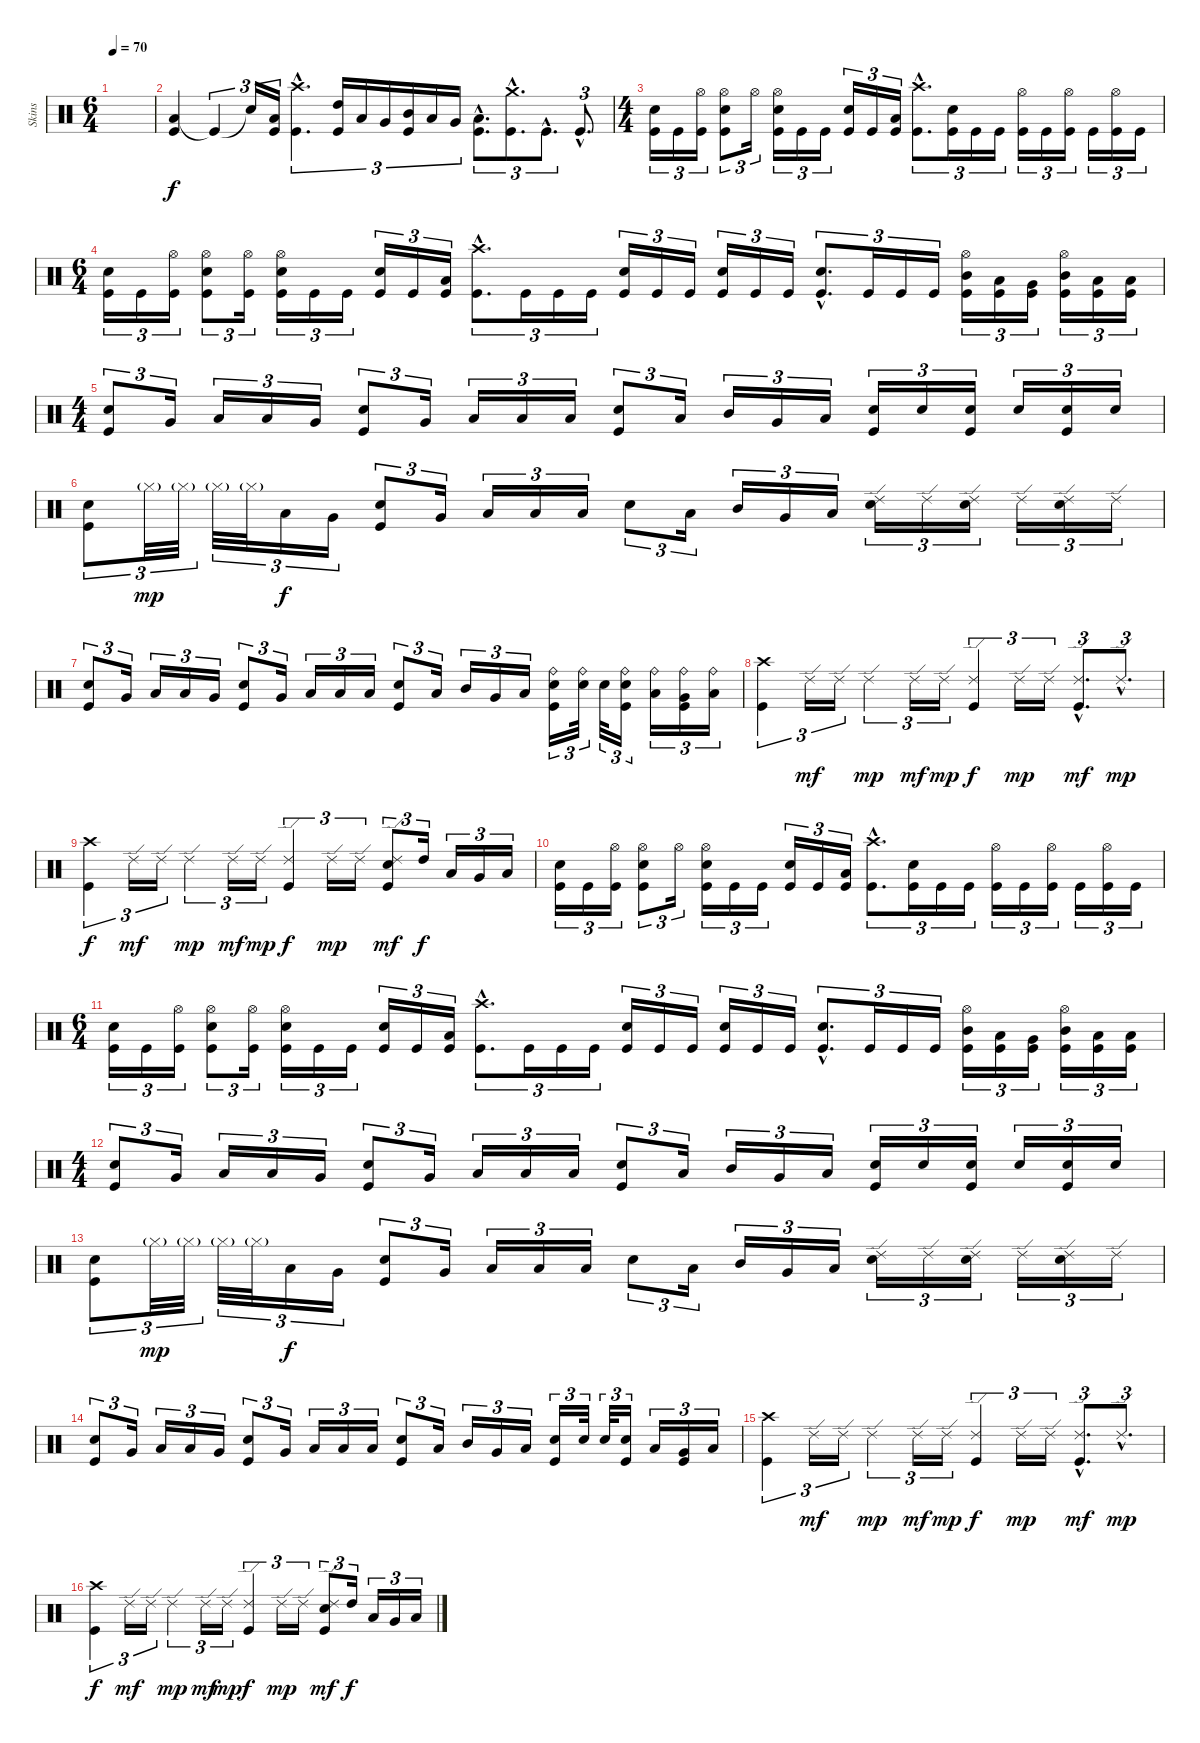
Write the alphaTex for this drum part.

\track ("Skins" "Skins") {instrument percussion}
\staff {score}
\articulation defaults
\ts (6 4)
\tempo 70
\clef neutral
\ks c
|
("Low Tom (hit)" "Kick (hit)").4 "Kick (hit)"{t}.4{tu (3 2)} "Snare (hit)"{t}.16{tu (3 2)} ("Low Tom (hit)" "Kick (hit)").16{tu (3 2)} ("Crash high (hit)"{hac} "Kick (hit)"{hac}).4{d tu (3 2)} ("High Tom (hit)" "Kick (hit)").16{tu (3 2)} "Low Tom (hit)".16{tu (3 2)} "Very Low Tom (hit)".16{tu (3 2)} ("Mid Tom (hit)" "Kick (hit)").16{tu (3 2)} "Low Tom (hit)".16{tu (3 2)} "Very Low Tom (hit)".16{tu (3 2)} ("Low Floor Tom (hit)"{hac} "Kick (hit)"{hac}).8{d tu (3 2)} ("Crash medium (hit)"{hac} "Kick (hit)"{hac}).8{d tu (3 2)} "Kick (hit)"{hac}.8{d tu (3 2)} "Kick (hit)"{hac}.8{d tu (3 2)} |
\ts (4 4)
("Snare (hit) 2" "Kick (hit)").16{tu (3 2)} "Kick (hit)".16{tu (3 2)} ("Hi-Hat (open)" "Kick (hit)").16{tu (3 2)} ("Snare (hit) 2" "Hi-Hat (open)" "Kick (hit)").8{tu (3 2)} "Hi-Hat (open)".16{tu (3 2)} ("Snare (hit) 2" "Hi-Hat (open)" "Kick (hit)").16{tu (3 2)} "Kick (hit)".16{tu (3 2)} "Kick (hit)".16{tu (3 2)} ("Snare (hit) 2" "Kick (hit)").16{tu (3 2)} "Kick (hit)".16{tu (3 2)} ("Low Tom (hit)" "Kick (hit)").16{tu (3 2)} ("Crash high (hit)"{hac} "Kick (hit)"{hac}).8{d tu (3 2)} ("Snare (hit) 2" "Kick (hit)").16{tu (3 2)} "Kick (hit)".16{tu (3 2)} "Kick (hit)".16{tu (3 2)} ("Hi-Hat (open)" "Kick (hit)").16{tu (3 2)} "Kick (hit)".16{tu (3 2)} ("Hi-Hat (open)" "Kick (hit)").16{tu (3 2)} "Kick (hit)".16{tu (3 2)} ("Hi-Hat (open)" "Kick (hit)").16{tu (3 2)} "Kick (hit)".16{tu (3 2)} |
\ts (6 4)
("Snare (hit) 2" "Kick (hit)").16{tu (3 2)} "Kick (hit)".16{tu (3 2)} ("Hi-Hat (open)" "Kick (hit)").16{tu (3 2)} ("Snare (hit) 2" "Hi-Hat (open)" "Kick (hit)").8{tu (3 2)} ("Hi-Hat (open)" "Kick (hit)").16{tu (3 2)} ("Snare (hit) 2" "Hi-Hat (open)" "Kick (hit)").16{tu (3 2)} "Kick (hit)".16{tu (3 2)} "Kick (hit)".16{tu (3 2)} ("Snare (hit) 2" "Kick (hit)").16{tu (3 2)} "Kick (hit)".16{tu (3 2)} ("Low Tom (hit)" "Kick (hit)").16{tu (3 2)} ("Crash high (hit)"{hac} "Kick (hit)"{hac}).8{d tu (3 2)} "Kick (hit)".16{tu (3 2)} "Kick (hit)".16{tu (3 2)} "Kick (hit)".16{tu (3 2)} ("Snare (hit) 2" "Kick (hit)").16{tu (3 2)} "Kick (hit)".16{tu (3 2)} "Kick (hit)".16{tu (3 2)} ("Snare (hit) 2" "Kick (hit)").16{tu (3 2)} "Kick (hit)".16{tu (3 2)} "Kick (hit)".16{tu (3 2)} ("Snare (hit) 2"{hac} "Kick (hit)"{hac}).8{d tu (3 2)} "Kick (hit)".16{tu (3 2)} "Kick (hit)".16{tu (3 2)} "Kick (hit)".16{tu (3 2)} ("Hi-Hat (open)" "Mid Tom (hit)" "Kick (hit)").16{tu (3 2)} ("Low Tom (hit)" "Kick (hit)").16{tu (3 2)} ("Very Low Tom (hit)" "Kick (hit)").16{tu (3 2)} ("Hi-Hat (open)" "Mid Tom (hit)" "Kick (hit)").16{tu (3 2)} ("Low Tom (hit)" "Kick (hit)").16{tu (3 2)} ("Low Floor Tom (hit)" "Kick (hit)").16{tu (3 2)} |
\ts (4 4)
("Electric Snare (hit)" "Kick (hit)").8{tu (3 2)} "Very Low Tom (hit)".16{tu (3 2)} "Low Floor Tom (hit)".16{tu (3 2)} "Low Tom (hit)".16{tu (3 2)} "Very Low Tom (hit)".16{tu (3 2)} ("Electric Snare (hit)" "Kick (hit)").8{tu (3 2)} "Very Low Tom (hit)".16{tu (3 2)} "Low Floor Tom (hit)".16{tu (3 2)} "Low Floor Tom (hit)".16{tu (3 2)} "Low Floor Tom (hit)".16{tu (3 2)} ("Electric Snare (hit)" "Kick (hit)").8{tu (3 2)} "Low Tom (hit)".16{tu (3 2)} "Mid Tom (hit)".16{tu (3 2)} "Very Low Tom (hit)".16{tu (3 2)} "Low Floor Tom (hit)".16{tu (3 2)} ("Electric Snare (hit)" "Kick (hit)").16{tu (3 2)} "Electric Snare (hit)".16{tu (3 2)} ("Electric Snare (hit)" "Kick (hit)").16{tu (3 2)} "Snare (hit) 2".16{tu (3 2)} ("Snare (hit) 2" "Kick (hit)").16{tu (3 2)} "Snare (hit) 2".16{tu (3 2)} |
("Electric Snare (hit)" "Kick (hit)").8{tu (3 2)} "Hi-Hat (closed)"{g}.32{tu (3 2) dy mp} "Hi-Hat (closed)"{g}.32{tu (3 2)} "Hi-Hat (closed)"{g}.32{tu (3 2)} "Hi-Hat (closed)"{g}.32{tu (3 2)} "Low Tom (hit)".16{tu (3 2) dy f} "Very Low Tom (hit)".16{tu (3 2)} ("Electric Snare (hit)" "Kick (hit)").8{tu (3 2)} "Very Low Tom (hit)".16{tu (3 2)} "Low Floor Tom (hit)".16{tu (3 2)} "Low Floor Tom (hit)".16{tu (3 2)} "Low Floor Tom (hit)".16{tu (3 2)} "Electric Snare (hit)".8{tu (3 2)} "Low Tom (hit)".16{tu (3 2)} "Mid Tom (hit)".16{tu (3 2)} "Very Low Tom (hit)".16{tu (3 2)} "Low Floor Tom (hit)".16{tu (3 2)} ("Ride (edge) 2" "Electric Snare (hit)").16{tu (3 2)} "Ride (edge) 2".16{tu (3 2)} ("Ride (edge) 2" "Snare (hit) 2").16{tu (3 2)} "Ride (edge) 2".16{tu (3 2)} ("Ride (edge) 2" "Snare (hit) 2").16{tu (3 2)} "Ride (edge) 2".16{tu (3 2)} |
("Electric Snare (hit)" "Kick (hit)").8{tu (3 2)} "Very Low Tom (hit)".16{tu (3 2)} "Low Floor Tom (hit)".16{tu (3 2)} "Low Tom (hit)".16{tu (3 2)} "Very Low Tom (hit)".16{tu (3 2)} ("Electric Snare (hit)" "Kick (hit)").8{tu (3 2)} "Very Low Tom (hit)".16{tu (3 2)} "Low Floor Tom (hit)".16{tu (3 2)} "Low Floor Tom (hit)".16{tu (3 2)} "Low Floor Tom (hit)".16{tu (3 2)} ("Electric Snare (hit)" "Kick (hit)").8{tu (3 2)} "Low Tom (hit)".16{tu (3 2)} "Mid Tom (hit)".16{tu (3 2)} "Very Low Tom (hit)".16{tu (3 2)} "Low Floor Tom (hit)".16{tu (3 2)} ("Ride (bell)" "Electric Snare (hit)" "Kick (hit)").16{tu (3 2)} ("Ride (bell)" "Electric Snare (hit)").32{tu (3 2)} "Electric Snare (hit)".32{tu (3 2)} ("Ride (bell)" "Electric Snare (hit)" "Kick (hit)").16{tu (3 2)} ("Ride (bell)" "Low Tom (hit)").16{tu (3 2)} ("Ride (bell)" "Very Low Tom (hit)" "Kick (hit)").16{tu (3 2)} ("Ride (bell)" "Low Floor Tom (hit)").16{tu (3 2)} |
("Crash high (hit)" "Kick (hit)").4{tu (3 2)} "Ride (edge) 2".16{tu (3 2) dy mf} "Ride (edge) 2".16{tu (3 2)} "Ride (edge) 2".4{tu (3 2) dy mp} "Ride (edge) 2".16{tu (3 2) dy mf} "Ride (edge) 2".16{tu (3 2) dy mp} ("Ride (edge) 2" "Kick (hit)").4{tu (3 2) dy f} "Ride (edge) 2".16{tu (3 2) dy mp} "Ride (edge) 2".16{tu (3 2)} ("Ride (edge) 2"{hac} "Kick (hit)"{hac}).8{d tu (3 2) dy mf} "Ride (edge) 2"{hac}.8{d tu (3 2) dy mp} |
("Crash high (hit)" "Kick (hit)").4{tu (3 2) dy f} "Ride (edge) 2".16{tu (3 2) dy mf} "Ride (edge) 2".16{tu (3 2)} "Ride (edge) 2".4{tu (3 2) dy mp} "Ride (edge) 2".16{tu (3 2) dy mf} "Ride (edge) 2".16{tu (3 2) dy mp} ("Ride (edge) 2" "Kick (hit)").4{tu (3 2) dy f} "Ride (edge) 2".16{tu (3 2) dy mp} "Ride (edge) 2".16{tu (3 2)} ("Ride (edge) 2" "Electric Snare (hit)" "Kick (hit)").8{tu (3 2) dy mf} "High Tom (hit)".16{tu (3 2) dy f} "Low Tom (hit)".16{tu (3 2)} "Very Low Tom (hit)".16{tu (3 2)} "Low Floor Tom (hit)".16{tu (3 2)} |
("Snare (hit) 2" "Kick (hit)").16{tu (3 2)} "Kick (hit)".16{tu (3 2)} ("Hi-Hat (open)" "Kick (hit)").16{tu (3 2)} ("Snare (hit) 2" "Hi-Hat (open)" "Kick (hit)").8{tu (3 2)} "Hi-Hat (open)".16{tu (3 2)} ("Snare (hit) 2" "Hi-Hat (open)" "Kick (hit)").16{tu (3 2)} "Kick (hit)".16{tu (3 2)} "Kick (hit)".16{tu (3 2)} ("Snare (hit) 2" "Kick (hit)").16{tu (3 2)} "Kick (hit)".16{tu (3 2)} ("Low Tom (hit)" "Kick (hit)").16{tu (3 2)} ("Crash high (hit)"{hac} "Kick (hit)"{hac}).8{d tu (3 2)} ("Snare (hit) 2" "Kick (hit)").16{tu (3 2)} "Kick (hit)".16{tu (3 2)} "Kick (hit)".16{tu (3 2)} ("Hi-Hat (open)" "Kick (hit)").16{tu (3 2)} "Kick (hit)".16{tu (3 2)} ("Hi-Hat (open)" "Kick (hit)").16{tu (3 2)} "Kick (hit)".16{tu (3 2)} ("Hi-Hat (open)" "Kick (hit)").16{tu (3 2)} "Kick (hit)".16{tu (3 2)} |
\ts (6 4)
("Snare (hit) 2" "Kick (hit)").16{tu (3 2)} "Kick (hit)".16{tu (3 2)} ("Hi-Hat (open)" "Kick (hit)").16{tu (3 2)} ("Snare (hit) 2" "Hi-Hat (open)" "Kick (hit)").8{tu (3 2)} ("Hi-Hat (open)" "Kick (hit)").16{tu (3 2)} ("Snare (hit) 2" "Hi-Hat (open)" "Kick (hit)").16{tu (3 2)} "Kick (hit)".16{tu (3 2)} "Kick (hit)".16{tu (3 2)} ("Snare (hit) 2" "Kick (hit)").16{tu (3 2)} "Kick (hit)".16{tu (3 2)} ("Low Tom (hit)" "Kick (hit)").16{tu (3 2)} ("Crash high (hit)"{hac} "Kick (hit)"{hac}).8{d tu (3 2)} "Kick (hit)".16{tu (3 2)} "Kick (hit)".16{tu (3 2)} "Kick (hit)".16{tu (3 2)} ("Snare (hit) 2" "Kick (hit)").16{tu (3 2)} "Kick (hit)".16{tu (3 2)} "Kick (hit)".16{tu (3 2)} ("Snare (hit) 2" "Kick (hit)").16{tu (3 2)} "Kick (hit)".16{tu (3 2)} "Kick (hit)".16{tu (3 2)} ("Snare (hit) 2"{hac} "Kick (hit)"{hac}).8{d tu (3 2)} "Kick (hit)".16{tu (3 2)} "Kick (hit)".16{tu (3 2)} "Kick (hit)".16{tu (3 2)} ("Hi-Hat (open)" "Mid Tom (hit)" "Kick (hit)").16{tu (3 2)} ("Low Tom (hit)" "Kick (hit)").16{tu (3 2)} ("Very Low Tom (hit)" "Kick (hit)").16{tu (3 2)} ("Hi-Hat (open)" "Mid Tom (hit)" "Kick (hit)").16{tu (3 2)} ("Low Tom (hit)" "Kick (hit)").16{tu (3 2)} ("Low Floor Tom (hit)" "Kick (hit)").16{tu (3 2)} |
\ts (4 4)
("Electric Snare (hit)" "Kick (hit)").8{tu (3 2)} "Very Low Tom (hit)".16{tu (3 2)} "Low Floor Tom (hit)".16{tu (3 2)} "Low Tom (hit)".16{tu (3 2)} "Very Low Tom (hit)".16{tu (3 2)} ("Electric Snare (hit)" "Kick (hit)").8{tu (3 2)} "Very Low Tom (hit)".16{tu (3 2)} "Low Floor Tom (hit)".16{tu (3 2)} "Low Floor Tom (hit)".16{tu (3 2)} "Low Floor Tom (hit)".16{tu (3 2)} ("Electric Snare (hit)" "Kick (hit)").8{tu (3 2)} "Low Tom (hit)".16{tu (3 2)} "Mid Tom (hit)".16{tu (3 2)} "Very Low Tom (hit)".16{tu (3 2)} "Low Floor Tom (hit)".16{tu (3 2)} ("Electric Snare (hit)" "Kick (hit)").16{tu (3 2)} "Electric Snare (hit)".16{tu (3 2)} ("Electric Snare (hit)" "Kick (hit)").16{tu (3 2)} "Snare (hit) 2".16{tu (3 2)} ("Snare (hit) 2" "Kick (hit)").16{tu (3 2)} "Snare (hit) 2".16{tu (3 2)} |
("Electric Snare (hit)" "Kick (hit)").8{tu (3 2)} "Hi-Hat (closed)"{g}.32{tu (3 2) dy mp} "Hi-Hat (closed)"{g}.32{tu (3 2)} "Hi-Hat (closed)"{g}.32{tu (3 2)} "Hi-Hat (closed)"{g}.32{tu (3 2)} "Low Tom (hit)".16{tu (3 2) dy f} "Very Low Tom (hit)".16{tu (3 2)} ("Electric Snare (hit)" "Kick (hit)").8{tu (3 2)} "Very Low Tom (hit)".16{tu (3 2)} "Low Floor Tom (hit)".16{tu (3 2)} "Low Floor Tom (hit)".16{tu (3 2)} "Low Floor Tom (hit)".16{tu (3 2)} "Electric Snare (hit)".8{tu (3 2)} "Low Tom (hit)".16{tu (3 2)} "Mid Tom (hit)".16{tu (3 2)} "Very Low Tom (hit)".16{tu (3 2)} "Low Floor Tom (hit)".16{tu (3 2)} ("Ride (edge) 2" "Electric Snare (hit)").16{tu (3 2)} "Ride (edge) 2".16{tu (3 2)} ("Ride (edge) 2" "Snare (hit) 2").16{tu (3 2)} "Ride (edge) 2".16{tu (3 2)} ("Ride (edge) 2" "Snare (hit) 2").16{tu (3 2)} "Ride (edge) 2".16{tu (3 2)} |
("Electric Snare (hit)" "Kick (hit)").8{tu (3 2)} "Very Low Tom (hit)".16{tu (3 2)} "Low Floor Tom (hit)".16{tu (3 2)} "Low Tom (hit)".16{tu (3 2)} "Very Low Tom (hit)".16{tu (3 2)} ("Electric Snare (hit)" "Kick (hit)").8{tu (3 2)} "Very Low Tom (hit)".16{tu (3 2)} "Low Floor Tom (hit)".16{tu (3 2)} "Low Floor Tom (hit)".16{tu (3 2)} "Low Floor Tom (hit)".16{tu (3 2)} ("Electric Snare (hit)" "Kick (hit)").8{tu (3 2)} "Low Tom (hit)".16{tu (3 2)} "Mid Tom (hit)".16{tu (3 2)} "Very Low Tom (hit)".16{tu (3 2)} "Low Floor Tom (hit)".16{tu (3 2)} ("Electric Snare (hit)" "Kick (hit)").16{tu (3 2)} "Electric Snare (hit)".32{tu (3 2)} "Electric Snare (hit)".32{tu (3 2)} ("Electric Snare (hit)" "Kick (hit)").16{tu (3 2)} "Low Tom (hit)".16{tu (3 2)} ("Very Low Tom (hit)" "Kick (hit)").16{tu (3 2)} "Low Floor Tom (hit)".16{tu (3 2)} |
("Crash high (hit)" "Kick (hit)").4{tu (3 2)} "Ride (edge) 2".16{tu (3 2) dy mf} "Ride (edge) 2".16{tu (3 2)} "Ride (edge) 2".4{tu (3 2) dy mp} "Ride (edge) 2".16{tu (3 2) dy mf} "Ride (edge) 2".16{tu (3 2) dy mp} ("Ride (edge) 2" "Kick (hit)").4{tu (3 2) dy f} "Ride (edge) 2".16{tu (3 2) dy mp} "Ride (edge) 2".16{tu (3 2)} ("Ride (edge) 2"{hac} "Kick (hit)"{hac}).8{d tu (3 2) dy mf} "Ride (edge) 2"{hac}.8{d tu (3 2) dy mp} |
("Crash high (hit)" "Kick (hit)").4{tu (3 2) dy f} "Ride (edge) 2".16{tu (3 2) dy mf} "Ride (edge) 2".16{tu (3 2)} "Ride (edge) 2".4{tu (3 2) dy mp} "Ride (edge) 2".16{tu (3 2) dy mf} "Ride (edge) 2".16{tu (3 2) dy mp} ("Ride (edge) 2" "Kick (hit)").4{tu (3 2) dy f} "Ride (edge) 2".16{tu (3 2) dy mp} "Ride (edge) 2".16{tu (3 2)} ("Ride (edge) 2" "Electric Snare (hit)" "Kick (hit)").8{tu (3 2) dy mf} "High Tom (hit)".16{tu (3 2) dy f} "Low Tom (hit)".16{tu (3 2)} "Very Low Tom (hit)".16{tu (3 2)} "Low Floor Tom (hit)".16{tu (3 2)}
